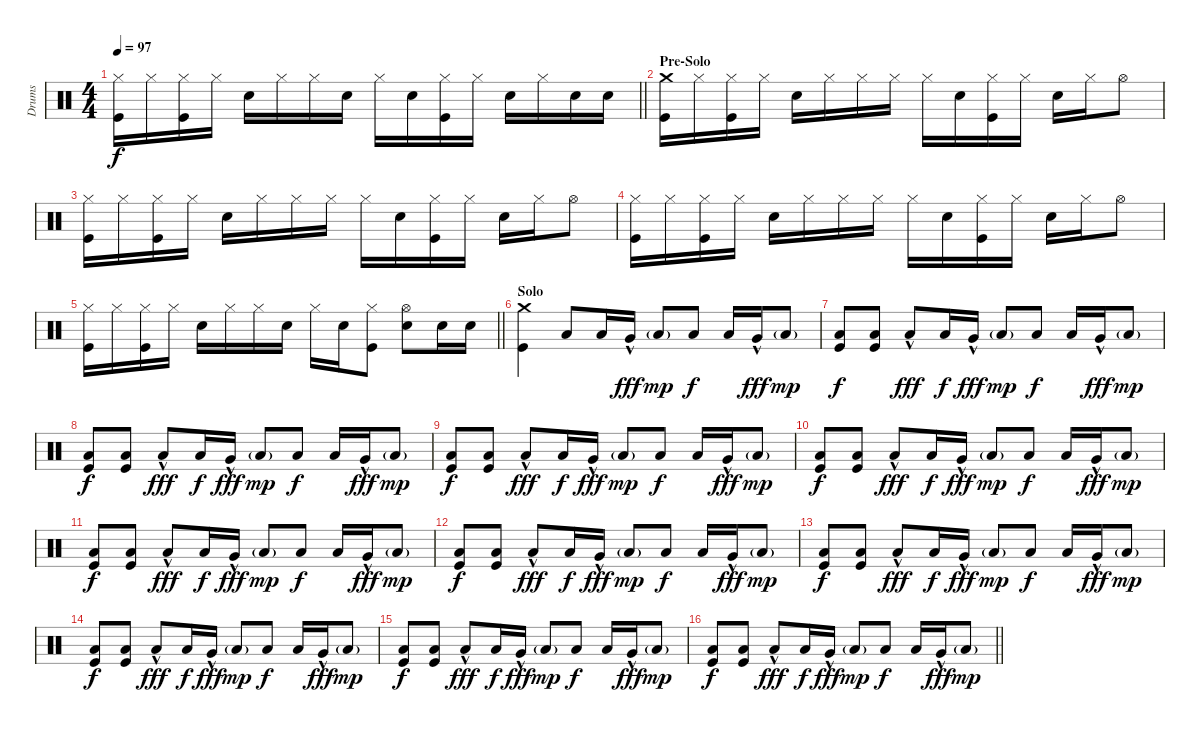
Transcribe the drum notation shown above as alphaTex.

\track ("Drums" "Drums") {instrument percussion}
\staff {score}
\articulation defaults
\ts (4 4)
\tempo 97
\clef neutral
\barLineRight lightlight
\ks c
("Hi-Hat (closed)" "Kick (hit)").16{dy f} "Hi-Hat (closed)".16 ("Hi-Hat (closed)" "Kick (hit)").16 "Hi-Hat (closed)".16 "Electric Snare (hit)".16 "Hi-Hat (closed)".16 "Hi-Hat (closed)".16 "Electric Snare (hit)".16 "Hi-Hat (closed)".16 "Electric Snare (hit)".16 ("Hi-Hat (closed)" "Kick (hit)").16 "Hi-Hat (closed)".16 "Electric Snare (hit)".16 "Hi-Hat (closed)".16 "Electric Snare (hit)".16 "Electric Snare (hit)".16 |
\section ("" "Pre-Solo")
("Crash medium (hit)" "Kick (hit)").16 "Hi-Hat (closed)".16 ("Hi-Hat (closed)" "Kick (hit)").16 "Hi-Hat (closed)".16 "Electric Snare (hit)".16 "Hi-Hat (closed)".16 "Hi-Hat (closed)".16 "Hi-Hat (closed)".16 "Hi-Hat (closed)".16 "Electric Snare (hit)".16 ("Hi-Hat (closed)" "Kick (hit)").16 "Hi-Hat (closed)".16 "Electric Snare (hit)".16 "Hi-Hat (closed)".16 "Hi-Hat (open)".8 |
("Hi-Hat (closed)" "Kick (hit)").16 "Hi-Hat (closed)".16 ("Hi-Hat (closed)" "Kick (hit)").16 "Hi-Hat (closed)".16 "Electric Snare (hit)".16 "Hi-Hat (closed)".16 "Hi-Hat (closed)".16 "Hi-Hat (closed)".16 "Hi-Hat (closed)".16 "Electric Snare (hit)".16 ("Hi-Hat (closed)" "Kick (hit)").16 "Hi-Hat (closed)".16 "Electric Snare (hit)".16 "Hi-Hat (closed)".16 "Hi-Hat (open)".8 |
("Hi-Hat (closed)" "Kick (hit)").16 "Hi-Hat (closed)".16 ("Hi-Hat (closed)" "Kick (hit)").16 "Hi-Hat (closed)".16 "Electric Snare (hit)".16 "Hi-Hat (closed)".16 "Hi-Hat (closed)".16 "Hi-Hat (closed)".16 "Hi-Hat (closed)".16 "Electric Snare (hit)".16 ("Hi-Hat (closed)" "Kick (hit)").16 "Hi-Hat (closed)".16 "Electric Snare (hit)".16 "Hi-Hat (closed)".16 "Hi-Hat (open)".8 |
\barLineRight lightlight
("Hi-Hat (closed)" "Kick (hit)").16 "Hi-Hat (closed)".16 ("Hi-Hat (closed)" "Kick (hit)").16 "Hi-Hat (closed)".16 "Electric Snare (hit)".16 "Hi-Hat (closed)".16 "Hi-Hat (closed)".16 "Electric Snare (hit)".16 "Hi-Hat (closed)".16 "Electric Snare (hit)".16 ("Hi-Hat (closed)" "Kick (hit)").8 ("Hi-Hat (open)" "Electric Snare (hit)").8 "Electric Snare (hit)".16 "Electric Snare (hit)".16 |
\section ("" "Solo")
("Crash medium (hit)" "Kick (hit)").4 "Low Floor Tom (hit)".8 "Low Floor Tom (hit)".16 "Very Low Tom (hit)"{hac}.16{dy fff} "Low Floor Tom (hit)"{g}.8{dy mp} "Low Floor Tom (hit)".8{dy f} "Low Floor Tom (hit)".16 "Very Low Tom (hit)"{hac}.16{dy fff} "Low Floor Tom (hit)"{g}.8{dy mp} |
("Low Floor Tom (hit)" "Kick (hit)").8{dy f} ("Low Floor Tom (hit)" "Kick (hit)").8 "Low Floor Tom (hit)"{hac}.8{dy fff} "Low Floor Tom (hit)".16{dy f} "Very Low Tom (hit)"{hac}.16{dy fff} "Low Floor Tom (hit)"{g}.8{dy mp} "Low Floor Tom (hit)".8{dy f} "Low Floor Tom (hit)".16 "Very Low Tom (hit)"{hac}.16{dy fff} "Low Floor Tom (hit)"{g}.8{dy mp} |
("Low Floor Tom (hit)" "Kick (hit)").8{dy f} ("Low Floor Tom (hit)" "Kick (hit)").8 "Low Floor Tom (hit)"{hac}.8{dy fff} "Low Floor Tom (hit)".16{dy f} "Very Low Tom (hit)"{hac}.16{dy fff} "Low Floor Tom (hit)"{g}.8{dy mp} "Low Floor Tom (hit)".8{dy f} "Low Floor Tom (hit)".16 "Very Low Tom (hit)"{hac}.16{dy fff} "Low Floor Tom (hit)"{g}.8{dy mp} |
("Low Floor Tom (hit)" "Kick (hit)").8{dy f} ("Low Floor Tom (hit)" "Kick (hit)").8 "Low Floor Tom (hit)"{hac}.8{dy fff} "Low Floor Tom (hit)".16{dy f} "Very Low Tom (hit)"{hac}.16{dy fff} "Low Floor Tom (hit)"{g}.8{dy mp} "Low Floor Tom (hit)".8{dy f} "Low Floor Tom (hit)".16 "Very Low Tom (hit)"{hac}.16{dy fff} "Low Floor Tom (hit)"{g}.8{dy mp} |
("Low Floor Tom (hit)" "Kick (hit)").8{dy f} ("Low Floor Tom (hit)" "Kick (hit)").8 "Low Floor Tom (hit)"{hac}.8{dy fff} "Low Floor Tom (hit)".16{dy f} "Very Low Tom (hit)"{hac}.16{dy fff} "Low Floor Tom (hit)"{g}.8{dy mp} "Low Floor Tom (hit)".8{dy f} "Low Floor Tom (hit)".16 "Very Low Tom (hit)"{hac}.16{dy fff} "Low Floor Tom (hit)"{g}.8{dy mp} |
("Low Floor Tom (hit)" "Kick (hit)").8{dy f} ("Low Floor Tom (hit)" "Kick (hit)").8 "Low Floor Tom (hit)"{hac}.8{dy fff} "Low Floor Tom (hit)".16{dy f} "Very Low Tom (hit)"{hac}.16{dy fff} "Low Floor Tom (hit)"{g}.8{dy mp} "Low Floor Tom (hit)".8{dy f} "Low Floor Tom (hit)".16 "Very Low Tom (hit)"{hac}.16{dy fff} "Low Floor Tom (hit)"{g}.8{dy mp} |
("Low Floor Tom (hit)" "Kick (hit)").8{dy f} ("Low Floor Tom (hit)" "Kick (hit)").8 "Low Floor Tom (hit)"{hac}.8{dy fff} "Low Floor Tom (hit)".16{dy f} "Very Low Tom (hit)"{hac}.16{dy fff} "Low Floor Tom (hit)"{g}.8{dy mp} "Low Floor Tom (hit)".8{dy f} "Low Floor Tom (hit)".16 "Very Low Tom (hit)"{hac}.16{dy fff} "Low Floor Tom (hit)"{g}.8{dy mp} |
("Low Floor Tom (hit)" "Kick (hit)").8{dy f} ("Low Floor Tom (hit)" "Kick (hit)").8 "Low Floor Tom (hit)"{hac}.8{dy fff} "Low Floor Tom (hit)".16{dy f} "Very Low Tom (hit)"{hac}.16{dy fff} "Low Floor Tom (hit)"{g}.8{dy mp} "Low Floor Tom (hit)".8{dy f} "Low Floor Tom (hit)".16 "Very Low Tom (hit)"{hac}.16{dy fff} "Low Floor Tom (hit)"{g}.8{dy mp} |
("Low Floor Tom (hit)" "Kick (hit)").8{dy f} ("Low Floor Tom (hit)" "Kick (hit)").8 "Low Floor Tom (hit)"{hac}.8{dy fff} "Low Floor Tom (hit)".16{dy f} "Very Low Tom (hit)"{hac}.16{dy fff} "Low Floor Tom (hit)"{g}.8{dy mp} "Low Floor Tom (hit)".8{dy f} "Low Floor Tom (hit)".16 "Very Low Tom (hit)"{hac}.16{dy fff} "Low Floor Tom (hit)"{g}.8{dy mp} |
("Low Floor Tom (hit)" "Kick (hit)").8{dy f} ("Low Floor Tom (hit)" "Kick (hit)").8 "Low Floor Tom (hit)"{hac}.8{dy fff} "Low Floor Tom (hit)".16{dy f} "Very Low Tom (hit)"{hac}.16{dy fff} "Low Floor Tom (hit)"{g}.8{dy mp} "Low Floor Tom (hit)".8{dy f} "Low Floor Tom (hit)".16 "Very Low Tom (hit)"{hac}.16{dy fff} "Low Floor Tom (hit)"{g}.8{dy mp} |
\barLineRight lightlight
("Low Floor Tom (hit)" "Kick (hit)").8{dy f} ("Low Floor Tom (hit)" "Kick (hit)").8 "Low Floor Tom (hit)"{hac}.8{dy fff} "Low Floor Tom (hit)".16{dy f} "Very Low Tom (hit)"{hac}.16{dy fff} "Low Floor Tom (hit)"{g}.8{dy mp} "Low Floor Tom (hit)".8{dy f} "Low Floor Tom (hit)".16 "Very Low Tom (hit)"{hac}.16{dy fff} "Low Floor Tom (hit)"{g}.8{dy mp}
